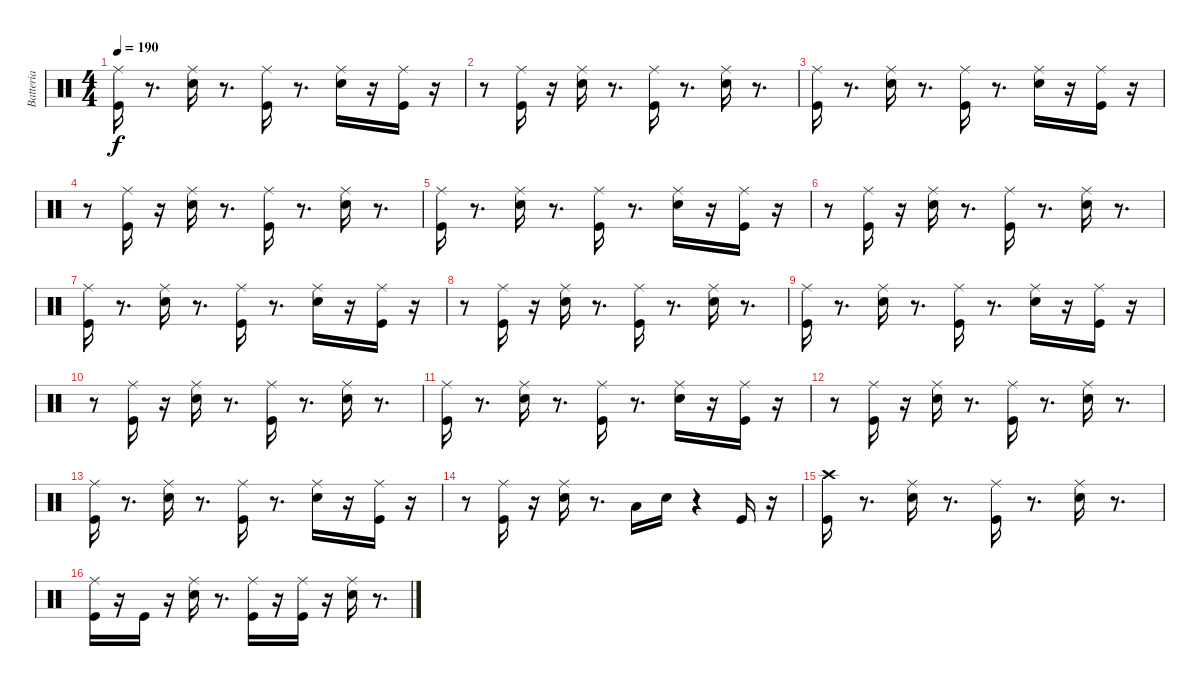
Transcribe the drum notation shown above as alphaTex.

\track ("Batteria" "Batteria") {instrument percussion}
\staff {score}
\articulation defaults
\ts (4 4)
\tempo 190
\clef neutral
\ks c
("Kick (hit)" "Ride (middle)").16{dy f} r.8{d} ("Ride (middle)" "Snare (hit) 2").16 r.8{d} ("Ride (middle)" "Kick (hit)").16 r.8{d} ("Ride (middle)" "Snare (hit) 2").16 r.16 ("Ride (middle)" "Kick (hit)").16 r.16 |
r.8 ("Ride (middle)" "Kick (hit)").16 r.16 ("Snare (hit) 2" "Ride (middle)").16 r.8{d} ("Kick (hit)" "Ride (middle)").16 r.8{d} ("Snare (hit) 2" "Ride (middle)").16 r.8{d} |
("Kick (hit)" "Ride (middle)").16 r.8{d} ("Ride (middle)" "Snare (hit) 2").16 r.8{d} ("Ride (middle)" "Kick (hit)").16 r.8{d} ("Ride (middle)" "Snare (hit) 2").16 r.16 ("Ride (middle)" "Kick (hit)").16 r.16 |
r.8 ("Ride (middle)" "Kick (hit)").16 r.16 ("Snare (hit) 2" "Ride (middle)").16 r.8{d} ("Kick (hit)" "Ride (middle)").16 r.8{d} ("Snare (hit) 2" "Ride (middle)").16 r.8{d} |
("Kick (hit)" "Ride (middle)").16 r.8{d} ("Ride (middle)" "Snare (hit) 2").16 r.8{d} ("Ride (middle)" "Kick (hit)").16 r.8{d} ("Ride (middle)" "Snare (hit) 2").16 r.16 ("Ride (middle)" "Kick (hit)").16 r.16 |
r.8 ("Ride (middle)" "Kick (hit)").16 r.16 ("Snare (hit) 2" "Ride (middle)").16 r.8{d} ("Kick (hit)" "Ride (middle)").16 r.8{d} ("Snare (hit) 2" "Ride (middle)").16 r.8{d} |
("Kick (hit)" "Ride (middle)").16 r.8{d} ("Ride (middle)" "Snare (hit) 2").16 r.8{d} ("Ride (middle)" "Kick (hit)").16 r.8{d} ("Ride (middle)" "Snare (hit) 2").16 r.16 ("Ride (middle)" "Kick (hit)").16 r.16 |
r.8 ("Ride (middle)" "Kick (hit)").16 r.16 ("Snare (hit) 2" "Ride (middle)").16 r.8{d} ("Kick (hit)" "Ride (middle)").16 r.8{d} ("Snare (hit) 2" "Ride (middle)").16 r.8{d} |
("Kick (hit)" "Ride (middle)").16 r.8{d} ("Ride (middle)" "Snare (hit) 2").16 r.8{d} ("Ride (middle)" "Kick (hit)").16 r.8{d} ("Ride (middle)" "Snare (hit) 2").16 r.16 ("Ride (middle)" "Kick (hit)").16 r.16 |
r.8 ("Ride (middle)" "Kick (hit)").16 r.16 ("Snare (hit) 2" "Ride (middle)").16 r.8{d} ("Kick (hit)" "Ride (middle)").16 r.8{d} ("Snare (hit) 2" "Ride (middle)").16 r.8{d} |
("Kick (hit)" "Ride (middle)").16 r.8{d} ("Ride (middle)" "Snare (hit) 2").16 r.8{d} ("Ride (middle)" "Kick (hit)").16 r.8{d} ("Ride (middle)" "Snare (hit) 2").16 r.16 ("Ride (middle)" "Kick (hit)").16 r.16 |
r.8 ("Ride (middle)" "Kick (hit)").16 r.16 ("Snare (hit) 2" "Ride (middle)").16 r.8{d} ("Kick (hit)" "Ride (middle)").16 r.8{d} ("Snare (hit) 2" "Ride (middle)").16 r.8{d} |
("Kick (hit)" "Ride (middle)").16 r.8{d} ("Ride (middle)" "Snare (hit) 2").16 r.8{d} ("Ride (middle)" "Kick (hit)").16 r.8{d} ("Ride (middle)" "Snare (hit) 2").16 r.16 ("Ride (middle)" "Kick (hit)").16 r.16 |
r.8 ("Ride (middle)" "Kick (hit)").16 r.16 ("Snare (hit) 2" "Ride (middle)").16 r.8{d} "Low Tom (hit)".16 "Snare (hit) 2".16 r.4 "Kick (hit)".16 r.16 |
("Kick (hit)" "Crash high (hit)").16 r.8{d} ("Ride (middle)" "Snare (hit) 2").16 r.8{d} ("Ride (middle)" "Kick (hit)").16 r.8{d} ("Ride (middle)" "Snare (hit) 2").16 r.8{d} |
("Ride (middle)" "Kick (hit)").16 r.16 "Kick (hit)".16 r.16 ("Snare (hit) 2" "Ride (middle)").16 r.8{d} ("Kick (hit)" "Ride (middle)").16 r.16 ("Ride (middle)" "Kick (hit)").16 r.16 ("Snare (hit) 2" "Ride (middle)").16 r.8{d}
